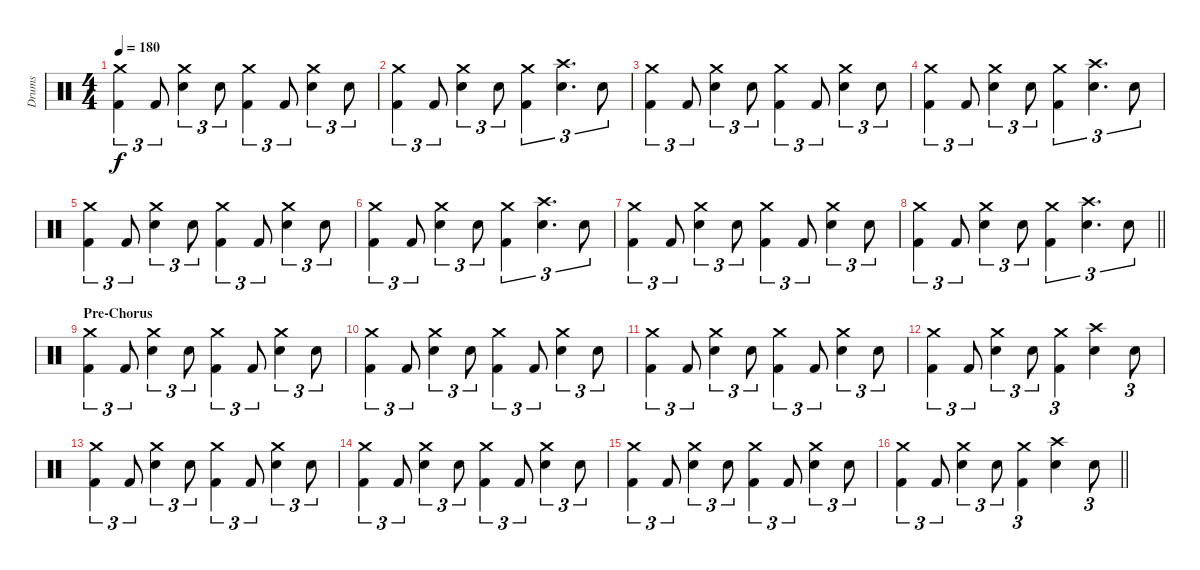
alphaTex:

\track ("Drums" "Drums") {instrument percussion}
\staff {score}
\articulation defaults
\ts (4 4)
\tempo 180
\clef neutral
\ks c
("Crash medium (hit)" "Kick (hit) 2").4{tu (3 2) dy f} "Kick (hit) 2".8{tu (3 2)} ("Crash medium (hit)" "Electric Snare (hit)").4{tu (3 2)} "Electric Snare (hit)".8{tu (3 2)} ("Crash medium (hit)" "Kick (hit) 2").4{tu (3 2)} "Kick (hit) 2".8{tu (3 2)} ("Crash medium (hit)" "Electric Snare (hit)").4{tu (3 2)} "Electric Snare (hit)".8{tu (3 2)} |
("Crash medium (hit)" "Kick (hit) 2").4{tu (3 2)} "Kick (hit) 2".8{tu (3 2)} ("Crash medium (hit)" "Electric Snare (hit)").4{tu (3 2)} "Electric Snare (hit)".8{tu (3 2)} ("Crash medium (hit)" "Kick (hit) 2").4{tu (3 2)} ("Crash high (hit)" "Electric Snare (hit)").4{d tu (3 2)} "Electric Snare (hit)".8{tu (3 2)} |
("Crash medium (hit)" "Kick (hit) 2").4{tu (3 2)} "Kick (hit) 2".8{tu (3 2)} ("Crash medium (hit)" "Electric Snare (hit)").4{tu (3 2)} "Electric Snare (hit)".8{tu (3 2)} ("Crash medium (hit)" "Kick (hit) 2").4{tu (3 2)} "Kick (hit) 2".8{tu (3 2)} ("Crash medium (hit)" "Electric Snare (hit)").4{tu (3 2)} "Electric Snare (hit)".8{tu (3 2)} |
("Crash medium (hit)" "Kick (hit) 2").4{tu (3 2)} "Kick (hit) 2".8{tu (3 2)} ("Crash medium (hit)" "Electric Snare (hit)").4{tu (3 2)} "Electric Snare (hit)".8{tu (3 2)} ("Crash medium (hit)" "Kick (hit) 2").4{tu (3 2)} ("Crash high (hit)" "Electric Snare (hit)").4{d tu (3 2)} "Electric Snare (hit)".8{tu (3 2)} |
("Crash medium (hit)" "Kick (hit) 2").4{tu (3 2)} "Kick (hit) 2".8{tu (3 2)} ("Crash medium (hit)" "Electric Snare (hit)").4{tu (3 2)} "Electric Snare (hit)".8{tu (3 2)} ("Crash medium (hit)" "Kick (hit) 2").4{tu (3 2)} "Kick (hit) 2".8{tu (3 2)} ("Crash medium (hit)" "Electric Snare (hit)").4{tu (3 2)} "Electric Snare (hit)".8{tu (3 2)} |
("Crash medium (hit)" "Kick (hit) 2").4{tu (3 2)} "Kick (hit) 2".8{tu (3 2)} ("Crash medium (hit)" "Electric Snare (hit)").4{tu (3 2)} "Electric Snare (hit)".8{tu (3 2)} ("Crash medium (hit)" "Kick (hit) 2").4{tu (3 2)} ("Crash high (hit)" "Electric Snare (hit)").4{d tu (3 2)} "Electric Snare (hit)".8{tu (3 2)} |
("Crash medium (hit)" "Kick (hit) 2").4{tu (3 2)} "Kick (hit) 2".8{tu (3 2)} ("Crash medium (hit)" "Electric Snare (hit)").4{tu (3 2)} "Electric Snare (hit)".8{tu (3 2)} ("Crash medium (hit)" "Kick (hit) 2").4{tu (3 2)} "Kick (hit) 2".8{tu (3 2)} ("Crash medium (hit)" "Electric Snare (hit)").4{tu (3 2)} "Electric Snare (hit)".8{tu (3 2)} |
\barLineRight lightlight
("Crash medium (hit)" "Kick (hit) 2").4{tu (3 2)} "Kick (hit) 2".8{tu (3 2)} ("Crash medium (hit)" "Electric Snare (hit)").4{tu (3 2)} "Electric Snare (hit)".8{tu (3 2)} ("Crash medium (hit)" "Kick (hit) 2").4{tu (3 2)} ("Crash high (hit)" "Electric Snare (hit)").4{d tu (3 2)} "Electric Snare (hit)".8{tu (3 2)} |
\section ("" "Pre-Chorus")
("Crash medium (hit)" "Kick (hit) 2").4{tu (3 2)} "Kick (hit) 2".8{tu (3 2)} ("Crash medium (hit)" "Electric Snare (hit)").4{tu (3 2)} "Electric Snare (hit)".8{tu (3 2)} ("Crash medium (hit)" "Kick (hit) 2").4{tu (3 2)} "Kick (hit) 2".8{tu (3 2)} ("Crash medium (hit)" "Electric Snare (hit)").4{tu (3 2)} "Electric Snare (hit)".8{tu (3 2)} |
("Crash medium (hit)" "Kick (hit) 2").4{tu (3 2)} "Kick (hit) 2".8{tu (3 2)} ("Crash medium (hit)" "Electric Snare (hit)").4{tu (3 2)} "Electric Snare (hit)".8{tu (3 2)} ("Crash medium (hit)" "Kick (hit) 2").4{tu (3 2)} "Kick (hit) 2".8{tu (3 2)} ("Crash medium (hit)" "Electric Snare (hit)").4{tu (3 2)} "Electric Snare (hit)".8{tu (3 2)} |
("Crash medium (hit)" "Kick (hit) 2").4{tu (3 2)} "Kick (hit) 2".8{tu (3 2)} ("Crash medium (hit)" "Electric Snare (hit)").4{tu (3 2)} "Electric Snare (hit)".8{tu (3 2)} ("Crash medium (hit)" "Kick (hit) 2").4{tu (3 2)} "Kick (hit) 2".8{tu (3 2)} ("Crash medium (hit)" "Electric Snare (hit)").4{tu (3 2)} "Electric Snare (hit)".8{tu (3 2)} |
("Crash medium (hit)" "Kick (hit) 2").4{tu (3 2)} "Kick (hit) 2".8{tu (3 2)} ("Crash medium (hit)" "Electric Snare (hit)").4{tu (3 2)} "Electric Snare (hit)".8{tu (3 2)} ("Crash medium (hit)" "Kick (hit) 2").4{tu (3 2)} ("Crash high (hit)" "Electric Snare (hit)").4 "Electric Snare (hit)".8{tu (3 2)} |
("Crash medium (hit)" "Kick (hit) 2").4{tu (3 2)} "Kick (hit) 2".8{tu (3 2)} ("Crash medium (hit)" "Electric Snare (hit)").4{tu (3 2)} "Electric Snare (hit)".8{tu (3 2)} ("Crash medium (hit)" "Kick (hit) 2").4{tu (3 2)} "Kick (hit) 2".8{tu (3 2)} ("Crash medium (hit)" "Electric Snare (hit)").4{tu (3 2)} "Electric Snare (hit)".8{tu (3 2)} |
("Crash medium (hit)" "Kick (hit) 2").4{tu (3 2)} "Kick (hit) 2".8{tu (3 2)} ("Crash medium (hit)" "Electric Snare (hit)").4{tu (3 2)} "Electric Snare (hit)".8{tu (3 2)} ("Crash medium (hit)" "Kick (hit) 2").4{tu (3 2)} "Kick (hit) 2".8{tu (3 2)} ("Crash medium (hit)" "Electric Snare (hit)").4{tu (3 2)} "Electric Snare (hit)".8{tu (3 2)} |
("Crash medium (hit)" "Kick (hit) 2").4{tu (3 2)} "Kick (hit) 2".8{tu (3 2)} ("Crash medium (hit)" "Electric Snare (hit)").4{tu (3 2)} "Electric Snare (hit)".8{tu (3 2)} ("Crash medium (hit)" "Kick (hit) 2").4{tu (3 2)} "Kick (hit) 2".8{tu (3 2)} ("Crash medium (hit)" "Electric Snare (hit)").4{tu (3 2)} "Electric Snare (hit)".8{tu (3 2)} |
\barLineRight lightlight
("Crash medium (hit)" "Kick (hit) 2").4{tu (3 2)} "Kick (hit) 2".8{tu (3 2)} ("Crash medium (hit)" "Electric Snare (hit)").4{tu (3 2)} "Electric Snare (hit)".8{tu (3 2)} ("Crash medium (hit)" "Kick (hit) 2").4{tu (3 2)} ("Crash high (hit)" "Electric Snare (hit)").4 "Electric Snare (hit)".8{tu (3 2)}
